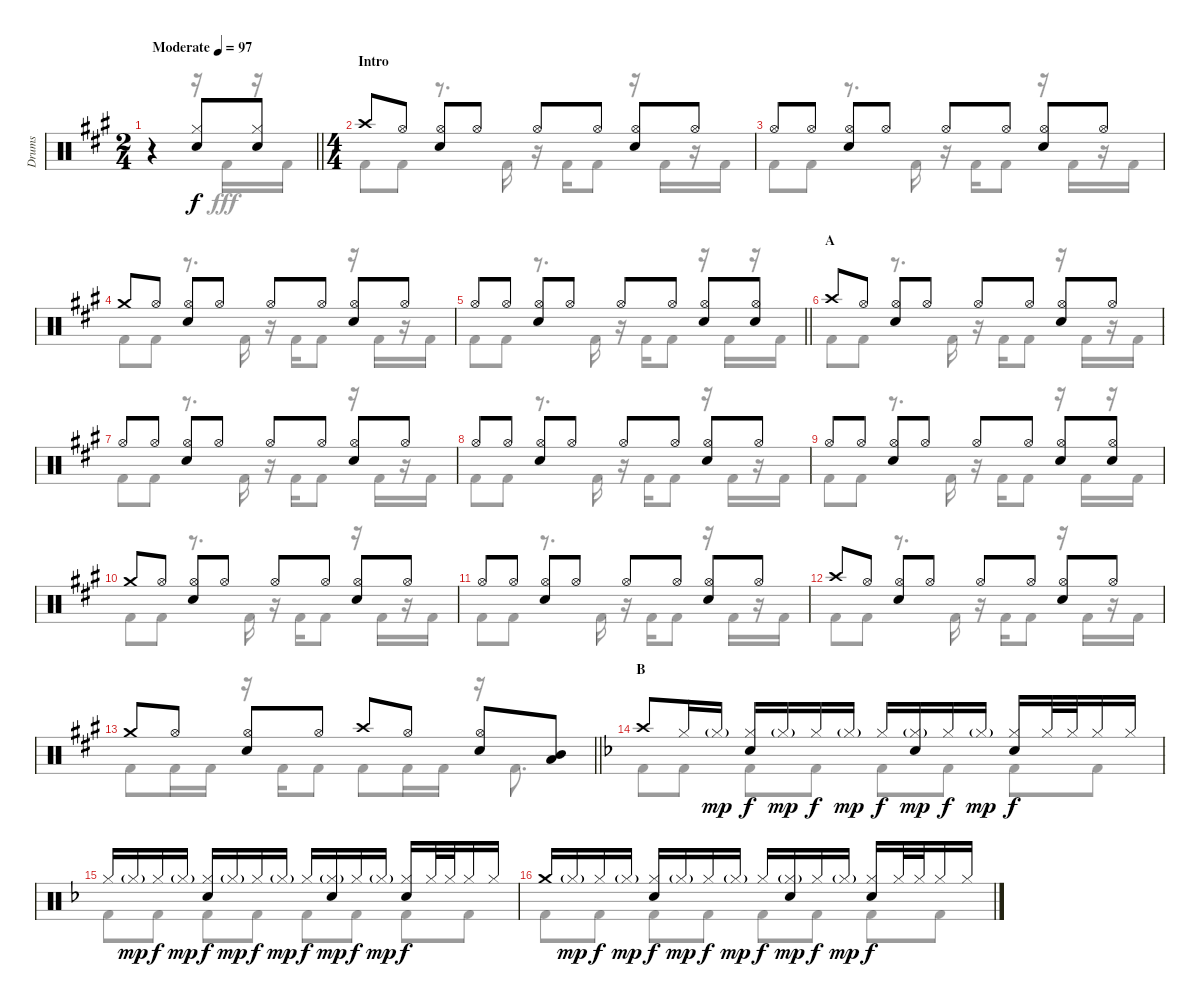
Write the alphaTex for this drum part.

\track ("Drums" "Drums") {instrument percussion}
\staff {score}
\articulation defaults
\voice
\ts (2 4)
\tempo (97 "Moderate")
\clef neutral
\barLineRight lightlight
\ks a
r.4{dy f} ("Hi-Hat (closed)" "Snare (hit) 2").8 ("Hi-Hat (closed)" "Snare (hit) 2").8 |
\ts (4 4)
\section ("" "Intro")
"Crash high (hit)".8 "Hi-Hat (open)".8 ("Hi-Hat (open)" "Snare (hit) 2").8 "Hi-Hat (open)".8 "Hi-Hat (open)".8 "Hi-Hat (open)".8 ("Hi-Hat (open)" "Snare (hit) 2").8 "Hi-Hat (open)".8 |
"Hi-Hat (open)".8 "Hi-Hat (open)".8 ("Hi-Hat (open)" "Snare (hit) 2").8 "Hi-Hat (open)".8 "Hi-Hat (open)".8 "Hi-Hat (open)".8 ("Hi-Hat (open)" "Snare (hit) 2").8 "Hi-Hat (open)".8 |
"Crash medium (hit)".8 "Hi-Hat (open)".8 ("Hi-Hat (open)" "Snare (hit) 2").8 "Hi-Hat (open)".8 "Hi-Hat (open)".8 "Hi-Hat (open)".8 ("Hi-Hat (open)" "Snare (hit) 2").8 "Hi-Hat (open)".8 |
\barLineRight lightlight "Hi-Hat (open)".8 "Hi-Hat (open)".8
("Hi-Hat (open)" "Snare (hit) 2").8 "Hi-Hat (open)".8 "Hi-Hat (open)".8 "Hi-Hat (open)".8 ("Hi-Hat (open)" "Snare (hit) 2").8 ("Hi-Hat (open)" "Snare (hit) 2").8 |
\section ("" "A")
"Crash high (hit)".8 "Hi-Hat (open)".8 ("Hi-Hat (open)" "Snare (hit) 2").8 "Hi-Hat (open)".8 "Hi-Hat (open)".8 "Hi-Hat (open)".8 ("Hi-Hat (open)" "Snare (hit) 2").8 "Hi-Hat (open)".8 |
"Hi-Hat (open)".8 "Hi-Hat (open)".8 ("Hi-Hat (open)" "Snare (hit) 2").8 "Hi-Hat (open)".8 "Hi-Hat (open)".8 "Hi-Hat (open)".8 ("Hi-Hat (open)" "Snare (hit) 2").8 "Hi-Hat (open)".8 |
"Hi-Hat (open)".8 "Hi-Hat (open)".8 ("Hi-Hat (open)" "Snare (hit) 2").8 "Hi-Hat (open)".8 "Hi-Hat (open)".8 "Hi-Hat (open)".8 ("Hi-Hat (open)" "Snare (hit) 2").8 "Hi-Hat (open)".8 |
"Hi-Hat (open)".8 "Hi-Hat (open)".8 ("Hi-Hat (open)" "Snare (hit) 2").8 "Hi-Hat (open)".8 "Hi-Hat (open)".8 "Hi-Hat (open)".8 ("Hi-Hat (open)" "Snare (hit) 2").8 ("Hi-Hat (open)" "Snare (hit) 2").8 |
"Crash medium (hit)".8 "Hi-Hat (open)".8 ("Hi-Hat (open)" "Snare (hit) 2").8 "Hi-Hat (open)".8 "Hi-Hat (open)".8 "Hi-Hat (open)".8 ("Hi-Hat (open)" "Snare (hit) 2").8 "Hi-Hat (open)".8 |
"Hi-Hat (open)".8 "Hi-Hat (open)".8 ("Hi-Hat (open)" "Snare (hit) 2").8 "Hi-Hat (open)".8 "Hi-Hat (open)".8 "Hi-Hat (open)".8 ("Hi-Hat (open)" "Snare (hit) 2").8 "Hi-Hat (open)".8 |
"Crash high (hit)".8 "Hi-Hat (open)".8 ("Hi-Hat (open)" "Snare (hit) 2").8 "Hi-Hat (open)".8 "Hi-Hat (open)".8 "Hi-Hat (open)".8 ("Hi-Hat (open)" "Snare (hit) 2").8 "Hi-Hat (open)".8 |
\barLineRight lightlight "Crash medium (hit)".8 "Hi-Hat (open)".8
("Hi-Hat (open)" "Snare (hit) 2").8 "Hi-Hat (open)".8 "Crash high (hit)".8 "Hi-Hat (open)".8 ("Hi-Hat (open)" "Snare (hit) 2").8 ("Mid Tom (hit)" "Low Tom (hit)").8 |
\section ("" "B")
\ks f "Crash high (hit)".8 "Hi-Hat (closed)".16 "Hi-Hat (closed)"{g}.16{dy mp}
("Hi-Hat (closed)" "Snare (hit) 2").16{dy f} "Hi-Hat (closed)"{g}.16{dy mp} "Hi-Hat (closed)".16{dy f} "Hi-Hat (closed)"{g}.16{dy mp} "Hi-Hat (closed)".16{dy f} ("Hi-Hat (closed)"{g} "Snare (hit) 2").16{dy mp} "Hi-Hat (closed)".16{dy f} "Hi-Hat (closed)"{g}.16{dy mp} ("Hi-Hat (closed)" "Snare (hit) 2").16{dy f} "Hi-Hat (closed)".32 "Hi-Hat (closed)".32 "Hi-Hat (closed)".16 "Hi-Hat (closed)".16 |
"Hi-Hat (closed)".16 "Hi-Hat (closed)"{g}.16{dy mp} "Hi-Hat (closed)".16{dy f} "Hi-Hat (closed)"{g}.16{dy mp} ("Hi-Hat (closed)" "Snare (hit) 2").16{dy f} "Hi-Hat (closed)"{g}.16{dy mp} "Hi-Hat (closed)".16{dy f} "Hi-Hat (closed)"{g}.16{dy mp} "Hi-Hat (closed)".16{dy f} ("Hi-Hat (closed)"{g} "Snare (hit) 2").16{dy mp} "Hi-Hat (closed)".16{dy f} "Hi-Hat (closed)"{g}.16{dy mp} ("Hi-Hat (closed)" "Snare (hit) 2").16{dy f} "Hi-Hat (closed)".32 "Hi-Hat (closed)".32 "Hi-Hat (closed)".16 "Hi-Hat (closed)".16 |
"Crash medium (hit)".16 "Hi-Hat (closed)"{g}.16{dy mp} "Hi-Hat (closed)".16{dy f} "Hi-Hat (closed)"{g}.16{dy mp} ("Hi-Hat (closed)" "Snare (hit) 2").16{dy f} "Hi-Hat (closed)"{g}.16{dy mp} "Hi-Hat (closed)".16{dy f} "Hi-Hat (closed)"{g}.16{dy mp} "Hi-Hat (closed)".16{dy f} ("Hi-Hat (closed)"{g} "Snare (hit) 2").16{dy mp} "Hi-Hat (closed)".16{dy f} "Hi-Hat (closed)"{g}.16{dy mp} ("Hi-Hat (closed)" "Snare (hit) 2").16{dy f} "Hi-Hat (closed)".32 "Hi-Hat (closed)".32 "Hi-Hat (closed)".16 "Hi-Hat (closed)".16
\voice
\clef neutral
\ottava regular
\simile none
\barLineRight lightlight
\ks a
r.4{dy fff} r.16 "Kick (hit) 2".16 r.16 "Kick (hit) 2".16 |
"Kick (hit) 2".8 "Kick (hit) 2".8 r.8{d} "Kick (hit) 2".16 r.16 "Kick (hit) 2".16 "Kick (hit) 2".8 r.16 "Kick (hit) 2".16 r.16 "Kick (hit) 2".16 |
"Kick (hit) 2".8 "Kick (hit) 2".8 r.8{d} "Kick (hit) 2".16 r.16 "Kick (hit) 2".16 "Kick (hit) 2".8 r.16 "Kick (hit) 2".16 r.16 "Kick (hit) 2".16 |
"Kick (hit) 2".8 "Kick (hit) 2".8 r.8{d} "Kick (hit) 2".16 r.16 "Kick (hit) 2".16 "Kick (hit) 2".8 r.16 "Kick (hit) 2".16 r.16 "Kick (hit) 2".16 |
\barLineRight lightlight "Kick (hit) 2".8 "Kick (hit) 2".8
r.8{d} "Kick (hit) 2".16 r.16 "Kick (hit) 2".16 "Kick (hit) 2".8 r.16 "Kick (hit) 2".16 r.16 "Kick (hit) 2".16 |
"Kick (hit) 2".8 "Kick (hit) 2".8 r.8{d} "Kick (hit) 2".16 r.16 "Kick (hit) 2".16 "Kick (hit) 2".8 r.16 "Kick (hit) 2".16 r.16 "Kick (hit) 2".16 |
"Kick (hit) 2".8 "Kick (hit) 2".8 r.8{d} "Kick (hit) 2".16 r.16 "Kick (hit) 2".16 "Kick (hit) 2".8 r.16 "Kick (hit) 2".16 r.16 "Kick (hit) 2".16 |
"Kick (hit) 2".8 "Kick (hit) 2".8 r.8{d} "Kick (hit) 2".16 r.16 "Kick (hit) 2".16 "Kick (hit) 2".8 r.16 "Kick (hit) 2".16 r.16 "Kick (hit) 2".16 |
"Kick (hit) 2".8 "Kick (hit) 2".8 r.8{d} "Kick (hit) 2".16 r.16 "Kick (hit) 2".16 "Kick (hit) 2".8 r.16 "Kick (hit) 2".16 r.16 "Kick (hit) 2".16 |
"Kick (hit) 2".8 "Kick (hit) 2".8 r.8{d} "Kick (hit) 2".16 r.16 "Kick (hit) 2".16 "Kick (hit) 2".8 r.16 "Kick (hit) 2".16 r.16 "Kick (hit) 2".16 |
"Kick (hit) 2".8 "Kick (hit) 2".8 r.8{d} "Kick (hit) 2".16 r.16 "Kick (hit) 2".16 "Kick (hit) 2".8 r.16 "Kick (hit) 2".16 r.16 "Kick (hit) 2".16 |
"Kick (hit) 2".8 "Kick (hit) 2".8 r.8{d} "Kick (hit) 2".16 r.16 "Kick (hit) 2".16 "Kick (hit) 2".8 r.16 "Kick (hit) 2".16 r.16 "Kick (hit) 2".16 |
\barLineRight lightlight "Kick (hit) 2".8 "Kick (hit) 2".16 "Kick (hit) 2".16
r.16 "Kick (hit) 2".16 "Kick (hit) 2".8 "Kick (hit) 2".8 "Kick (hit) 2".16 "Kick (hit) 2".16 r.16 "Kick (hit) 2".8{d} |
\ks f "Kick (hit) 2".8 "Kick (hit) 2".8 "Kick (hit) 2".8 "Kick (hit) 2".8 "Kick (hit) 2".8 "Kick (hit) 2".8 "Kick (hit) 2".8 "Kick (hit) 2".8
|
"Kick (hit) 2".8 "Kick (hit) 2".8 "Kick (hit) 2".8 "Kick (hit) 2".8 "Kick (hit) 2".8 "Kick (hit) 2".8 "Kick (hit) 2".8 "Kick (hit) 2".8 |
"Kick (hit) 2".8 "Kick (hit) 2".8 "Kick (hit) 2".8 "Kick (hit) 2".8 "Kick (hit) 2".8 "Kick (hit) 2".8 "Kick (hit) 2".8 "Kick (hit) 2".8
